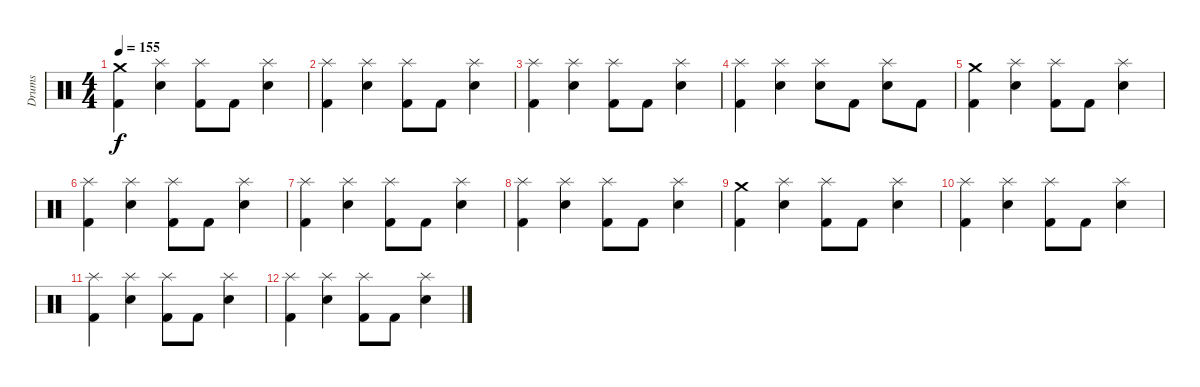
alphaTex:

\track ("Drums" "Drums") {instrument percussion}
\staff {score}
\articulation defaults
\ts (4 4)
\tempo 155
\clef neutral
\ks c
("Kick (hit) 2" "Crash medium (hit)").4{dy f} ("Splash (hit)" "Electric Snare (hit)").4 ("Kick (hit) 2" "Splash (hit)").8 "Kick (hit) 2".8 ("Splash (hit)" "Electric Snare (hit)").4 |
("Kick (hit) 2" "Splash (hit)").4 ("Splash (hit)" "Electric Snare (hit)").4 ("Kick (hit) 2" "Splash (hit)").8 "Kick (hit) 2".8 ("Splash (hit)" "Electric Snare (hit)").4 |
("Kick (hit) 2" "Splash (hit)").4 ("Electric Snare (hit)" "Splash (hit)").4 ("Kick (hit) 2" "Splash (hit)").8 "Kick (hit) 2".8 ("Electric Snare (hit)" "Splash (hit)").4 |
("Kick (hit) 2" "Splash (hit)").4 ("Electric Snare (hit)" "Splash (hit)").4 ("Snare (hit) 2" "Splash (hit)").8 "Kick (hit) 2".8 ("Electric Snare (hit)" "Splash (hit)").8 "Kick (hit) 2".8 |
("Kick (hit) 2" "Crash medium (hit)").4 ("Splash (hit)" "Electric Snare (hit)").4 ("Kick (hit) 2" "Splash (hit)").8 "Kick (hit) 2".8 ("Splash (hit)" "Electric Snare (hit)").4 |
("Kick (hit) 2" "Splash (hit)").4 ("Splash (hit)" "Electric Snare (hit)").4 ("Kick (hit) 2" "Splash (hit)").8 "Kick (hit) 2".8 ("Splash (hit)" "Electric Snare (hit)").4 |
("Kick (hit) 2" "Splash (hit)").4 ("Electric Snare (hit)" "Splash (hit)").4 ("Kick (hit) 2" "Splash (hit)").8 "Kick (hit) 2".8 ("Electric Snare (hit)" "Splash (hit)").4 |
("Kick (hit) 2" "Splash (hit)").4 ("Electric Snare (hit)" "Splash (hit)").4 ("Kick (hit) 2" "Splash (hit)").8 "Kick (hit) 2".8 ("Electric Snare (hit)" "Splash (hit)").4 |
("Kick (hit) 2" "Crash medium (hit)").4 ("Splash (hit)" "Electric Snare (hit)").4 ("Kick (hit) 2" "Splash (hit)").8 "Kick (hit) 2".8 ("Splash (hit)" "Electric Snare (hit)").4 |
("Kick (hit) 2" "Splash (hit)").4 ("Splash (hit)" "Electric Snare (hit)").4 ("Kick (hit) 2" "Splash (hit)").8 "Kick (hit) 2".8 ("Splash (hit)" "Electric Snare (hit)").4 |
("Kick (hit) 2" "Splash (hit)").4 ("Electric Snare (hit)" "Splash (hit)").4 ("Kick (hit) 2" "Splash (hit)").8 "Kick (hit) 2".8 ("Electric Snare (hit)" "Splash (hit)").4 |
("Kick (hit) 2" "Splash (hit)").4 ("Electric Snare (hit)" "Splash (hit)").4 ("Kick (hit) 2" "Splash (hit)").8 "Kick (hit) 2".8 ("Electric Snare (hit)" "Splash (hit)").4
